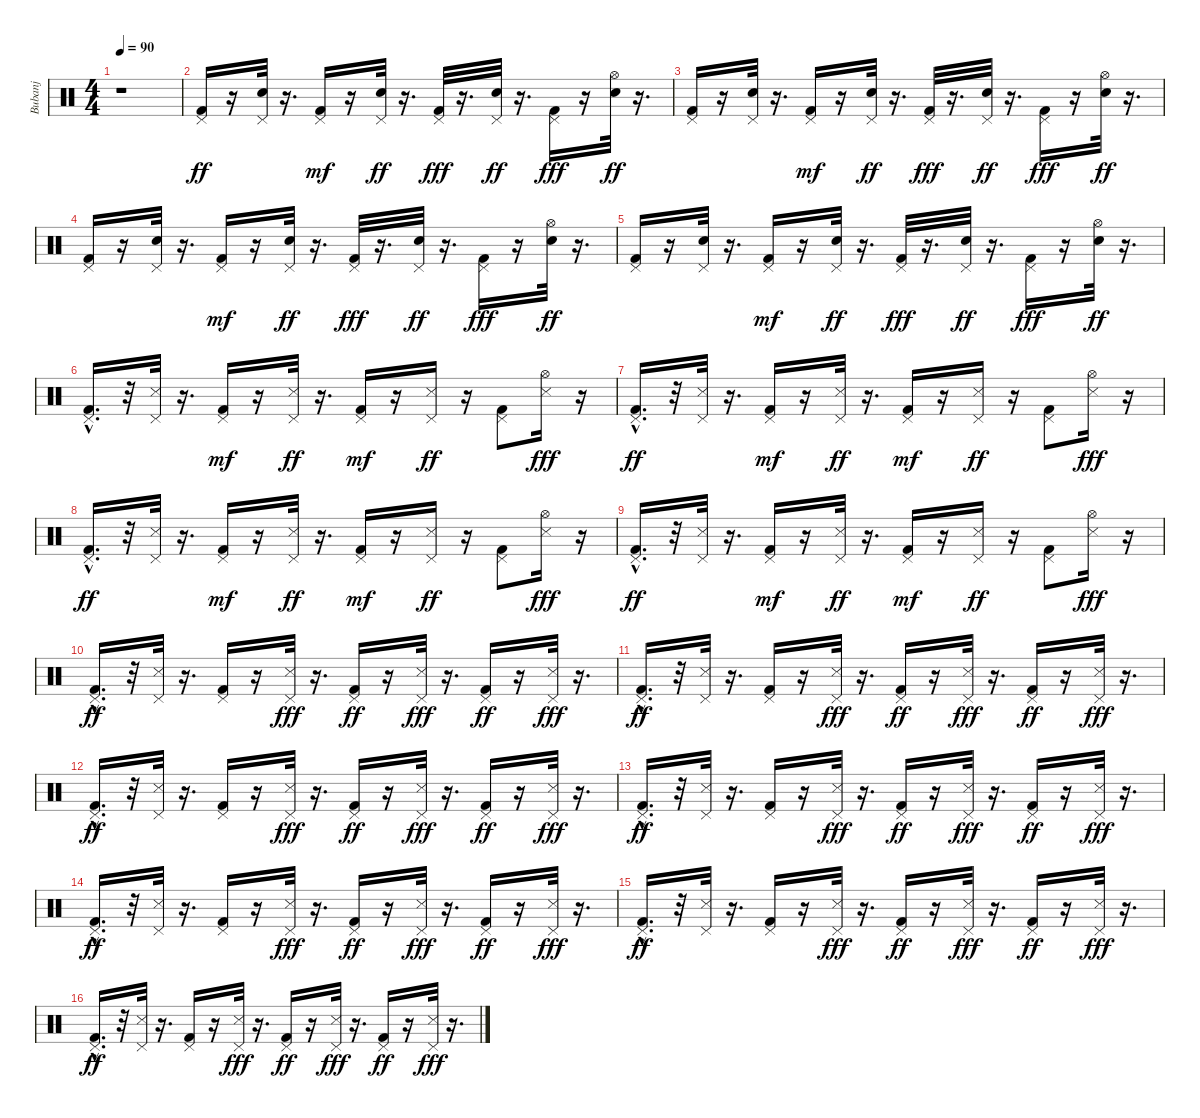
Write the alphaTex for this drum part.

\track ("Bubanj" "Bubanj") {instrument percussion}
\staff {score}
\articulation defaults
\ts (4 4)
\tempo 90
\clef neutral
\ks c
r.1{dy ff} |
("Kick (hit) 2" "Pedal Hi-Hat (hit)").16 r.16 ("Pedal Hi-Hat (hit)" "Electric Snare (hit)").32 r.16{d} ("Pedal Hi-Hat (hit)" "Kick (hit) 2").16{dy mf} r.16 ("Pedal Hi-Hat (hit)" "Electric Snare (hit)").32{dy ff} r.16{d} ("Kick (hit) 2" "Pedal Hi-Hat (hit)").32{dy fff} r.16{d} ("Pedal Hi-Hat (hit)" "Electric Snare (hit)").32{dy ff} r.16{d} ("Pedal Hi-Hat (hit)" "Kick (hit) 2").16{dy fff} r.16 ("Hi-Hat (open)" "Electric Snare (hit)").32{dy ff} r.16{d} |
("Kick (hit) 2" "Pedal Hi-Hat (hit)").16 r.16 ("Pedal Hi-Hat (hit)" "Electric Snare (hit)").32 r.16{d} ("Pedal Hi-Hat (hit)" "Kick (hit) 2").16{dy mf} r.16 ("Pedal Hi-Hat (hit)" "Electric Snare (hit)").32{dy ff} r.16{d} ("Kick (hit) 2" "Pedal Hi-Hat (hit)").32{dy fff} r.16{d} ("Pedal Hi-Hat (hit)" "Electric Snare (hit)").32{dy ff} r.16{d} ("Pedal Hi-Hat (hit)" "Kick (hit) 2").16{dy fff} r.16 ("Hi-Hat (open)" "Electric Snare (hit)").32{dy ff} r.16{d} |
("Kick (hit) 2" "Pedal Hi-Hat (hit)").16 r.16 ("Pedal Hi-Hat (hit)" "Electric Snare (hit)").32 r.16{d} ("Pedal Hi-Hat (hit)" "Kick (hit) 2").16{dy mf} r.16 ("Pedal Hi-Hat (hit)" "Electric Snare (hit)").32{dy ff} r.16{d} ("Kick (hit) 2" "Pedal Hi-Hat (hit)").32{dy fff} r.16{d} ("Pedal Hi-Hat (hit)" "Electric Snare (hit)").32{dy ff} r.16{d} ("Pedal Hi-Hat (hit)" "Kick (hit) 2").16{dy fff} r.16 ("Hi-Hat (open)" "Electric Snare (hit)").32{dy ff} r.16{d} |
("Kick (hit) 2" "Pedal Hi-Hat (hit)").16 r.16 ("Pedal Hi-Hat (hit)" "Electric Snare (hit)").32 r.16{d} ("Pedal Hi-Hat (hit)" "Kick (hit) 2").16{dy mf} r.16 ("Pedal Hi-Hat (hit)" "Electric Snare (hit)").32{dy ff} r.16{d} ("Kick (hit) 2" "Pedal Hi-Hat (hit)").32{dy fff} r.16{d} ("Pedal Hi-Hat (hit)" "Electric Snare (hit)").32{dy ff} r.16{d} ("Pedal Hi-Hat (hit)" "Kick (hit) 2").16{dy fff} r.16 ("Hi-Hat (open)" "Electric Snare (hit)").32{dy ff} r.16{d} |
("Kick (hit) 2"{hac} "Pedal Hi-Hat (hit)").16{d} r.32 ("Snare (side stick) 3" "Pedal Hi-Hat (hit)").32 r.16{d} ("Kick (hit) 2" "Pedal Hi-Hat (hit)").16{dy mf} r.16 ("Snare (side stick) 3" "Pedal Hi-Hat (hit)").32{dy ff} r.16{d} ("Kick (hit) 2" "Pedal Hi-Hat (hit)").16{dy mf} r.16 ("Snare (side stick) 3" "Pedal Hi-Hat (hit)").16{dy ff} r.16 ("Kick (hit) 2" "Pedal Hi-Hat (hit)").8 ("Snare (side stick) 3" "Hi-Hat (open)").16{dy fff} r.16 |
("Kick (hit) 2"{hac} "Pedal Hi-Hat (hit)").16{d dy ff} r.32 ("Snare (side stick) 3" "Pedal Hi-Hat (hit)").32 r.16{d} ("Kick (hit) 2" "Pedal Hi-Hat (hit)").16{dy mf} r.16 ("Snare (side stick) 3" "Pedal Hi-Hat (hit)").32{dy ff} r.16{d} ("Kick (hit) 2" "Pedal Hi-Hat (hit)").16{dy mf} r.16 ("Snare (side stick) 3" "Pedal Hi-Hat (hit)").16{dy ff} r.16 ("Kick (hit) 2" "Pedal Hi-Hat (hit)").8 ("Snare (side stick) 3" "Hi-Hat (open)").16{dy fff} r.16 |
("Kick (hit) 2"{hac} "Pedal Hi-Hat (hit)").16{d dy ff} r.32 ("Snare (side stick) 3" "Pedal Hi-Hat (hit)").32 r.16{d} ("Kick (hit) 2" "Pedal Hi-Hat (hit)").16{dy mf} r.16 ("Snare (side stick) 3" "Pedal Hi-Hat (hit)").32{dy ff} r.16{d} ("Kick (hit) 2" "Pedal Hi-Hat (hit)").16{dy mf} r.16 ("Snare (side stick) 3" "Pedal Hi-Hat (hit)").16{dy ff} r.16 ("Kick (hit) 2" "Pedal Hi-Hat (hit)").8 ("Snare (side stick) 3" "Hi-Hat (open)").16{dy fff} r.16 |
("Kick (hit) 2"{hac} "Pedal Hi-Hat (hit)").16{d dy ff} r.32 ("Snare (side stick) 3" "Pedal Hi-Hat (hit)").32 r.16{d} ("Kick (hit) 2" "Pedal Hi-Hat (hit)").16{dy mf} r.16 ("Snare (side stick) 3" "Pedal Hi-Hat (hit)").32{dy ff} r.16{d} ("Kick (hit) 2" "Pedal Hi-Hat (hit)").16{dy mf} r.16 ("Snare (side stick) 3" "Pedal Hi-Hat (hit)").16{dy ff} r.16 ("Kick (hit) 2" "Pedal Hi-Hat (hit)").8 ("Snare (side stick) 3" "Hi-Hat (open)").16{dy fff} r.16 |
("Kick (hit) 2"{hac} "Pedal Hi-Hat (hit)").16{d dy ff} r.32 ("Pedal Hi-Hat (hit)" "Snare (side stick) 3").32 r.16{d} ("Pedal Hi-Hat (hit)" "Kick (hit) 2").16 r.16 ("Snare (side stick) 3" "Pedal Hi-Hat (hit)").32{dy fff} r.16{d} ("Kick (hit) 2" "Pedal Hi-Hat (hit)").16{dy ff} r.16 ("Snare (side stick) 3" "Pedal Hi-Hat (hit)").32{dy fff} r.16{d} ("Kick (hit) 2" "Pedal Hi-Hat (hit)").16{dy ff} r.16 ("Snare (side stick) 3" "Pedal Hi-Hat (hit)").32{dy fff} r.16{d} |
("Kick (hit) 2"{hac} "Pedal Hi-Hat (hit)").16{d dy ff} r.32 ("Pedal Hi-Hat (hit)" "Snare (side stick) 3").32 r.16{d} ("Pedal Hi-Hat (hit)" "Kick (hit) 2").16 r.16 ("Snare (side stick) 3" "Pedal Hi-Hat (hit)").32{dy fff} r.16{d} ("Kick (hit) 2" "Pedal Hi-Hat (hit)").16{dy ff} r.16 ("Snare (side stick) 3" "Pedal Hi-Hat (hit)").32{dy fff} r.16{d} ("Kick (hit) 2" "Pedal Hi-Hat (hit)").16{dy ff} r.16 ("Snare (side stick) 3" "Pedal Hi-Hat (hit)").32{dy fff} r.16{d} |
("Kick (hit) 2"{hac} "Pedal Hi-Hat (hit)").16{d dy ff} r.32 ("Pedal Hi-Hat (hit)" "Snare (side stick) 3").32 r.16{d} ("Pedal Hi-Hat (hit)" "Kick (hit) 2").16 r.16 ("Snare (side stick) 3" "Pedal Hi-Hat (hit)").32{dy fff} r.16{d} ("Kick (hit) 2" "Pedal Hi-Hat (hit)").16{dy ff} r.16 ("Snare (side stick) 3" "Pedal Hi-Hat (hit)").32{dy fff} r.16{d} ("Kick (hit) 2" "Pedal Hi-Hat (hit)").16{dy ff} r.16 ("Snare (side stick) 3" "Pedal Hi-Hat (hit)").32{dy fff} r.16{d} |
("Kick (hit) 2"{hac} "Pedal Hi-Hat (hit)").16{d dy ff} r.32 ("Pedal Hi-Hat (hit)" "Snare (side stick) 3").32 r.16{d} ("Pedal Hi-Hat (hit)" "Kick (hit) 2").16 r.16 ("Snare (side stick) 3" "Pedal Hi-Hat (hit)").32{dy fff} r.16{d} ("Kick (hit) 2" "Pedal Hi-Hat (hit)").16{dy ff} r.16 ("Snare (side stick) 3" "Pedal Hi-Hat (hit)").32{dy fff} r.16{d} ("Kick (hit) 2" "Pedal Hi-Hat (hit)").16{dy ff} r.16 ("Snare (side stick) 3" "Pedal Hi-Hat (hit)").32{dy fff} r.16{d} |
("Kick (hit) 2"{hac} "Pedal Hi-Hat (hit)").16{d dy ff} r.32 ("Pedal Hi-Hat (hit)" "Snare (side stick) 3").32 r.16{d} ("Pedal Hi-Hat (hit)" "Kick (hit) 2").16 r.16 ("Snare (side stick) 3" "Pedal Hi-Hat (hit)").32{dy fff} r.16{d} ("Kick (hit) 2" "Pedal Hi-Hat (hit)").16{dy ff} r.16 ("Snare (side stick) 3" "Pedal Hi-Hat (hit)").32{dy fff} r.16{d} ("Kick (hit) 2" "Pedal Hi-Hat (hit)").16{dy ff} r.16 ("Snare (side stick) 3" "Pedal Hi-Hat (hit)").32{dy fff} r.16{d} |
("Kick (hit) 2"{hac} "Pedal Hi-Hat (hit)").16{d dy ff} r.32 ("Pedal Hi-Hat (hit)" "Snare (side stick) 3").32 r.16{d} ("Pedal Hi-Hat (hit)" "Kick (hit) 2").16 r.16 ("Snare (side stick) 3" "Pedal Hi-Hat (hit)").32{dy fff} r.16{d} ("Kick (hit) 2" "Pedal Hi-Hat (hit)").16{dy ff} r.16 ("Snare (side stick) 3" "Pedal Hi-Hat (hit)").32{dy fff} r.16{d} ("Kick (hit) 2" "Pedal Hi-Hat (hit)").16{dy ff} r.16 ("Snare (side stick) 3" "Pedal Hi-Hat (hit)").32{dy fff} r.16{d} |
("Kick (hit) 2"{hac} "Pedal Hi-Hat (hit)").16{d dy ff} r.32 ("Pedal Hi-Hat (hit)" "Snare (side stick) 3").32 r.16{d} ("Pedal Hi-Hat (hit)" "Kick (hit) 2").16 r.16 ("Snare (side stick) 3" "Pedal Hi-Hat (hit)").32{dy fff} r.16{d} ("Kick (hit) 2" "Pedal Hi-Hat (hit)").16{dy ff} r.16 ("Snare (side stick) 3" "Pedal Hi-Hat (hit)").32{dy fff} r.16{d} ("Kick (hit) 2" "Pedal Hi-Hat (hit)").16{dy ff} r.16 ("Snare (side stick) 3" "Pedal Hi-Hat (hit)").32{dy fff} r.16{d}
